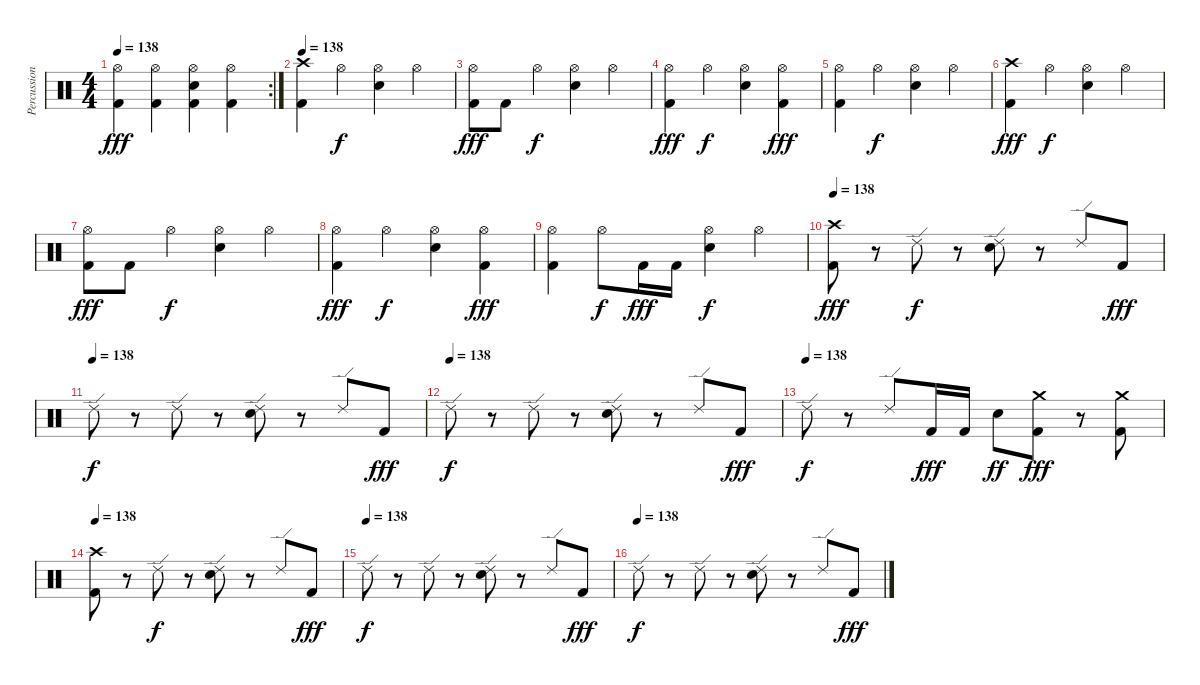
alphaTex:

\track ("Percussion" "Percussion") {instrument percussion}
\staff {score}
\articulation defaults
\rc 2
\ts (4 4)
\tempo 138
\clef neutral
\ks c
("Hi-Hat (open)" "Kick (hit) 2").4{dy fff} ("Hi-Hat (open)" "Kick (hit) 2").4 ("Hi-Hat (open)" "Snare (hit) 2" "Kick (hit) 2").4 ("Hi-Hat (open)" "Kick (hit) 2").4 |
\tempo 138
("Crash high (hit)" "Kick (hit) 2").4 "Hi-Hat (open)".4{dy f} ("Hi-Hat (open)" "Snare (hit) 2").4 "Hi-Hat (open)".4 |
("Hi-Hat (open)" "Kick (hit) 2").8{dy fff} "Kick (hit) 2".8 "Hi-Hat (open)".4{dy f} ("Hi-Hat (open)" "Snare (hit) 2").4 "Hi-Hat (open)".4 |
("Hi-Hat (open)" "Kick (hit) 2").4{dy fff} "Hi-Hat (open)".4{dy f} ("Hi-Hat (open)" "Snare (hit) 2").4 ("Hi-Hat (open)" "Kick (hit) 2").4{dy fff} |
("Hi-Hat (open)" "Kick (hit) 2").4 "Hi-Hat (open)".4{dy f} ("Hi-Hat (open)" "Snare (hit) 2").4 "Hi-Hat (open)".4 |
("Crash high (hit)" "Kick (hit) 2").4{dy fff} "Hi-Hat (open)".4{dy f} ("Hi-Hat (open)" "Snare (hit) 2").4 "Hi-Hat (open)".4 |
("Hi-Hat (open)" "Kick (hit) 2").8{dy fff} "Kick (hit) 2".8 "Hi-Hat (open)".4{dy f} ("Hi-Hat (open)" "Snare (hit) 2").4 "Hi-Hat (open)".4 |
("Hi-Hat (open)" "Kick (hit) 2").4{dy fff} "Hi-Hat (open)".4{dy f} ("Hi-Hat (open)" "Snare (hit) 2").4 ("Hi-Hat (open)" "Kick (hit) 2").4{dy fff} |
("Hi-Hat (open)" "Kick (hit) 2").4 "Hi-Hat (open)".8{dy f} "Kick (hit) 2".16{dy fff} "Kick (hit) 2".16 ("Hi-Hat (open)" "Snare (hit) 2").4{dy f} "Hi-Hat (open)".4 |
\tempo 138
("Crash high (hit)" "Kick (hit) 2").8{dy fff} r.8 "Ride (edge) 2".8{dy f} r.8 ("Ride (edge) 2" "Snare (hit) 2").8 r.8 "Ride (edge) 2".8 "Kick (hit) 2".8{dy fff} |
\tempo (138)
"Ride (edge) 2".8{dy f} r.8 "Ride (edge) 2".8 r.8 ("Ride (edge) 2" "Snare (hit) 2").8 r.8 "Ride (edge) 2".8 "Kick (hit) 2".8{dy fff} |
\tempo (138)
"Ride (edge) 2".8{dy f} r.8 "Ride (edge) 2".8 r.8 ("Ride (edge) 2" "Snare (hit) 2").8 r.8 "Ride (edge) 2".8 "Kick (hit) 2".8{dy fff} |
\tempo (138)
"Ride (edge) 2".8{dy f} r.8 "Ride (edge) 2".8 "Kick (hit) 2".16{dy fff} "Kick (hit) 2".16 "Snare (hit) 2".8{dy ff} ("Crash medium (hit)" "Kick (hit) 2").8{dy fff} r.8 ("Crash medium (hit)" "Kick (hit) 2").8 |
\tempo 138
("Crash high (hit)" "Kick (hit) 2").8 r.8 "Ride (edge) 2".8{dy f} r.8 ("Ride (edge) 2" "Snare (hit) 2").8 r.8 "Ride (edge) 2".8 "Kick (hit) 2".8{dy fff} |
\tempo (138)
"Ride (edge) 2".8{dy f} r.8 "Ride (edge) 2".8 r.8 ("Ride (edge) 2" "Snare (hit) 2").8 r.8 "Ride (edge) 2".8 "Kick (hit) 2".8{dy fff} |
\tempo (138)
"Ride (edge) 2".8{dy f} r.8 "Ride (edge) 2".8 r.8 ("Ride (edge) 2" "Snare (hit) 2").8 r.8 "Ride (edge) 2".8 "Kick (hit) 2".8{dy fff}
